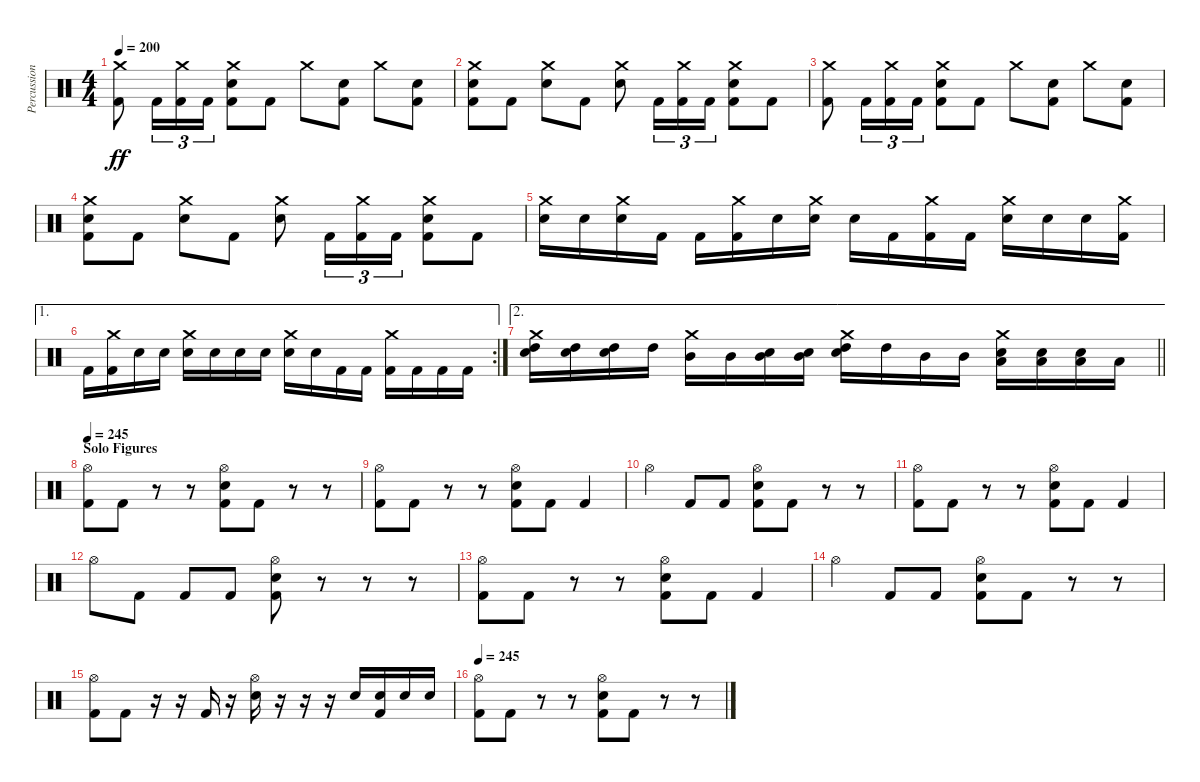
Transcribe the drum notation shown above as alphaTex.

\track ("Percussion" "Percussion") {instrument percussion}
\staff {score}
\articulation defaults
\ts (4 4)
\tempo 200
\clef neutral
\ks c
("Crash medium (hit)" "Kick (hit) 2").8{dy ff} "Kick (hit) 2".16{tu (3 2)} ("Crash medium (hit)" "Kick (hit) 2").16{tu (3 2)} "Kick (hit) 2".16{tu (3 2)} ("Crash medium (hit)" "Electric Snare (hit)" "Kick (hit) 2").8 "Kick (hit) 2".8 "Crash medium (hit)".8 ("Electric Snare (hit)" "Kick (hit) 2").8 "Crash medium (hit)".8 ("Electric Snare (hit)" "Kick (hit) 2").8 |
("Crash medium (hit)" "Electric Snare (hit)" "Kick (hit) 2").8 "Kick (hit) 2".8 ("Crash medium (hit)" "Electric Snare (hit)").8 "Kick (hit) 2".8 ("Crash medium (hit)" "Electric Snare (hit)").8 "Kick (hit) 2".16{tu (3 2)} ("Crash medium (hit)" "Kick (hit) 2").16{tu (3 2)} "Kick (hit) 2".16{tu (3 2)} ("Crash medium (hit)" "Electric Snare (hit)" "Kick (hit) 2").8 "Kick (hit) 2".8 |
("Crash medium (hit)" "Kick (hit) 2").8 "Kick (hit) 2".16{tu (3 2)} ("Crash medium (hit)" "Kick (hit) 2").16{tu (3 2)} "Kick (hit) 2".16{tu (3 2)} ("Crash medium (hit)" "Electric Snare (hit)" "Kick (hit) 2").8 "Kick (hit) 2".8 "Crash medium (hit)".8 ("Electric Snare (hit)" "Kick (hit) 2").8 "Crash medium (hit)".8 ("Electric Snare (hit)" "Kick (hit) 2").8 |
("Crash medium (hit)" "Electric Snare (hit)" "Kick (hit) 2").8 "Kick (hit) 2".8 ("Crash medium (hit)" "Electric Snare (hit)").8 "Kick (hit) 2".8 ("Crash medium (hit)" "Electric Snare (hit)").8 "Kick (hit) 2".16{tu (3 2)} ("Crash medium (hit)" "Kick (hit) 2").16{tu (3 2)} "Kick (hit) 2".16{tu (3 2)} ("Crash medium (hit)" "Electric Snare (hit)" "Kick (hit) 2").8 "Kick (hit) 2".8 |
("Crash medium (hit)" "Electric Snare (hit)").16 "Electric Snare (hit)".16 ("Crash medium (hit)" "Electric Snare (hit)").16 "Kick (hit) 2".16 "Kick (hit) 2".16 ("Crash medium (hit)" "Kick (hit) 2").16 "Electric Snare (hit)".16 ("Crash medium (hit)" "Electric Snare (hit)").16 "Electric Snare (hit)".16 "Kick (hit) 2".16 ("Crash medium (hit)" "Kick (hit) 2").16 "Kick (hit) 2".16 ("Crash medium (hit)" "Electric Snare (hit)").16 "Electric Snare (hit)".16 "Electric Snare (hit)".16 ("Crash medium (hit)" "Kick (hit) 2").16 |
\ae 1
\rc 2 "Kick (hit) 2".16
("Crash medium (hit)" "Kick (hit) 2").16 "Electric Snare (hit)".16 "Electric Snare (hit)".16 ("Crash medium (hit)" "Electric Snare (hit)").16 "Electric Snare (hit)".16 "Electric Snare (hit)".16 "Electric Snare (hit)".16 ("Crash medium (hit)" "Electric Snare (hit)").16 "Electric Snare (hit)".16 "Kick (hit) 2".16 "Kick (hit) 2".16 ("Crash medium (hit)" "Kick (hit) 2").16 "Kick (hit) 2".16 "Kick (hit) 2".16 "Kick (hit) 2".16 |
\ae 2
\barLineRight lightlight
("Crash medium (hit)" "High Tom (hit)" "Electric Snare (hit)").16 ("High Tom (hit)" "Electric Snare (hit)").16 ("High Tom (hit)" "Electric Snare (hit)").16 "High Tom (hit)".16 ("Crash medium (hit)" "Mid Tom (hit)").16 "Mid Tom (hit)".16 ("Mid Tom (hit)" "Electric Snare (hit)").16 ("Mid Tom (hit)" "Electric Snare (hit)").16 ("Crash medium (hit)" "High Tom (hit)" "Electric Snare (hit)").16 "High Tom (hit)".16 "Mid Tom (hit)".16 "Mid Tom (hit)".16 ("Crash medium (hit)" "Low Tom (hit)" "Electric Snare (hit)").16 ("Low Tom (hit)" "Electric Snare (hit)").16 ("Low Tom (hit)" "Electric Snare (hit)").16 "Low Tom (hit)".16 |
\section ("" "Solo Figures")
\tempo 245
("Hi-Hat (open)" "Kick (hit) 2").8 "Kick (hit) 2".8 r.8 r.8 ("Hi-Hat (open)" "Electric Snare (hit)" "Kick (hit) 2").8 "Kick (hit) 2".8 r.8 r.8 |
("Hi-Hat (open)" "Kick (hit) 2").8 "Kick (hit) 2".8 r.8 r.8 ("Hi-Hat (open)" "Electric Snare (hit)" "Kick (hit) 2").8 "Kick (hit) 2".8 "Kick (hit) 2".4 |
"Hi-Hat (open)".4 "Kick (hit) 2".8 "Kick (hit) 2".8 ("Hi-Hat (open)" "Electric Snare (hit)" "Kick (hit) 2").8 "Kick (hit) 2".8 r.8 r.8 |
("Hi-Hat (open)" "Kick (hit) 2").8 "Kick (hit) 2".8 r.8 r.8 ("Hi-Hat (open)" "Electric Snare (hit)" "Kick (hit) 2").8 "Kick (hit) 2".8 "Kick (hit) 2".4 |
"Hi-Hat (open)".8 "Kick (hit) 2".8 "Kick (hit) 2".8 "Kick (hit) 2".8 ("Hi-Hat (open)" "Electric Snare (hit)" "Kick (hit) 2").8 r.8 r.8 r.8 |
("Hi-Hat (open)" "Kick (hit) 2").8 "Kick (hit) 2".8 r.8 r.8 ("Hi-Hat (open)" "Electric Snare (hit)" "Kick (hit) 2").8 "Kick (hit) 2".8 "Kick (hit) 2".4 |
"Hi-Hat (open)".4 "Kick (hit) 2".8 "Kick (hit) 2".8 ("Hi-Hat (open)" "Electric Snare (hit)" "Kick (hit) 2").8 "Kick (hit) 2".8 r.8 r.8 |
("Hi-Hat (open)" "Kick (hit) 2").8 "Kick (hit) 2".8 r.16 r.16 "Kick (hit) 2".16 r.16 ("Hi-Hat (open)" "Electric Snare (hit)").16 r.16 r.16 r.16 "Electric Snare (hit)".16 ("Electric Snare (hit)" "Kick (hit) 2").16 "Electric Snare (hit)".16 "Electric Snare (hit)".16 |
\tempo 245
("Hi-Hat (open)" "Kick (hit) 2").8 "Kick (hit) 2".8 r.8 r.8 ("Hi-Hat (open)" "Electric Snare (hit)" "Kick (hit) 2").8 "Kick (hit) 2".8 r.8 r.8
